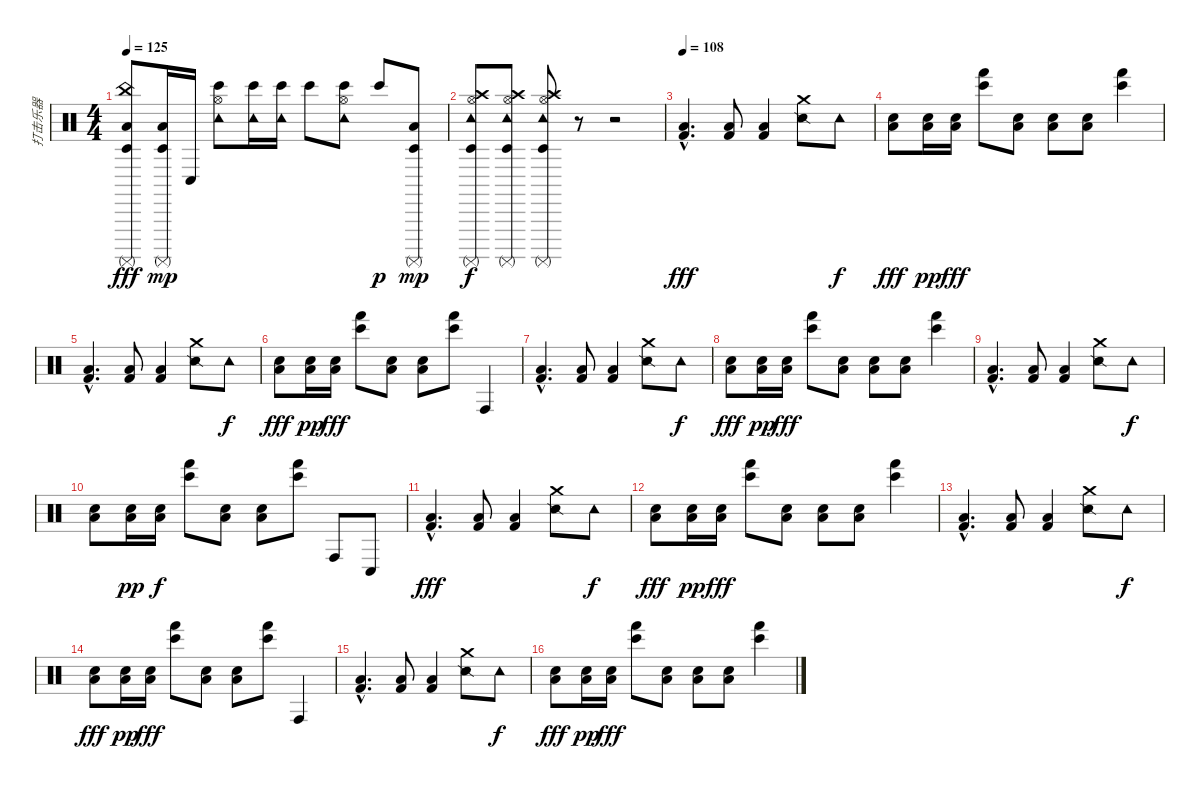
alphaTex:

\track ("打击乐器" "打击乐器") {instrument percussion}
\staff {score}
\articulation defaults
\ts (4 4)
\tempo 125
\clef neutral
\ks c
("Surdo (mute)" "Low Floor Tom (hit)" "Timbale low (hit)" "China (hit)").8{dy fff} ("Surdo (mute)" "Low Floor Tom (hit)" "Timbale low (hit)").16{dy mp} "Conga low (hit)".16 ("Tambourine (hit)" "Hi-Hat (open)" "Bongo High (hit)").8 ("Tambourine (hit)" "Bongo High (hit)").16 ("Tambourine (hit)" "Bongo High (hit)").16 "Bongo High (hit)".8 ("Tambourine (hit)" "Hi-Hat (open)" "Bongo High (hit)").8 "Bongo High (hit)".8{dy p} ("Surdo (mute)" "Low Floor Tom (hit)" "Timbale low (hit)").8{dy mp} |
("Surdo (mute)" "Crash high (hit)" "Timbale low (hit)" "Hi-Hat (open)" "Tambourine (hit)").8{dy f} ("Surdo (mute)" "Crash high (hit)" "Timbale low (hit)" "Hi-Hat (open)" "Tambourine (hit)").8 ("Surdo (mute)" "Crash high (hit)" "Timbale low (hit)" "Hi-Hat (open)" "Tambourine (hit)").8 r.8 r.2 |
\tempo 108
("Low Tom (hit)"{hac} "Kick (hit) 2"{hac}).4{d dy fff} ("Low Tom (hit)" "Kick (hit) 2").8 ("Low Tom (hit)" "Kick (hit) 2").4 ("Crash medium (hit)" "Snare (side stick) 2").8 "Tambourine (hit)".8{dy f} |
("Snare (hit) 2" "Low Tom (hit)").8{dy fff} ("Snare (hit) 2" "Low Tom (hit)").16{dy pp} ("Snare (hit) 2" "Low Tom (hit)").16{dy fff} ("Hand (hit)" "Bongo High (hit)").8 ("Snare (hit) 2" "Low Tom (hit)").8 ("Snare (hit) 2" "Low Tom (hit)").8 ("Snare (hit) 2" "Low Tom (hit)").8 ("Hand (hit)" "Bongo High (hit)").4 |
("Low Tom (hit)"{hac} "Kick (hit) 2"{hac}).4{d} ("Low Tom (hit)" "Kick (hit) 2").8 ("Low Tom (hit)" "Kick (hit) 2").4 ("Crash medium (hit)" "Snare (side stick) 2").8 "Tambourine (hit)".8{dy f} |
("Snare (hit) 2" "Low Tom (hit)").8{dy fff} ("Snare (hit) 2" "Low Tom (hit)").16{dy pp} ("Snare (hit) 2" "Low Tom (hit)").16{dy fff} ("Hand (hit)" "Bongo High (hit)").8 ("Snare (hit) 2" "Low Tom (hit)").8 ("Snare (hit) 2" "Low Tom (hit)").8 ("Hand (hit)" "Bongo High (hit)").8 "Conga high (hit)".4 |
("Low Tom (hit)"{hac} "Kick (hit) 2"{hac}).4{d} ("Low Tom (hit)" "Kick (hit) 2").8 ("Low Tom (hit)" "Kick (hit) 2").4 ("Crash medium (hit)" "Snare (side stick) 2").8 "Tambourine (hit)".8{dy f} |
("Snare (hit) 2" "Low Tom (hit)").8{dy fff} ("Snare (hit) 2" "Low Tom (hit)").16{dy pp} ("Snare (hit) 2" "Low Tom (hit)").16{dy fff} ("Hand (hit)" "Bongo High (hit)").8 ("Snare (hit) 2" "Low Tom (hit)").8 ("Snare (hit) 2" "Low Tom (hit)").8 ("Snare (hit) 2" "Low Tom (hit)").8 ("Hand (hit)" "Bongo High (hit)").4 |
("Low Tom (hit)"{hac} "Kick (hit) 2"{hac}).4{d} ("Low Tom (hit)" "Kick (hit) 2").8 ("Low Tom (hit)" "Kick (hit) 2").4 ("Crash medium (hit)" "Snare (side stick) 2").8 "Tambourine (hit)".8{dy f} |
("Snare (hit) 2" "Low Tom (hit)").8 ("Snare (hit) 2" "Low Tom (hit)").16{dy pp} ("Snare (hit) 2" "Low Tom (hit)").16{dy f} ("Hand (hit)" "Bongo High (hit)").8 ("Snare (hit) 2" "Low Tom (hit)").8 ("Snare (hit) 2" "Low Tom (hit)").8 ("Hand (hit)" "Bongo High (hit)").8 "Conga high (hit)".8 "Conga low (hit)".8 |
("Low Tom (hit)"{hac} "Kick (hit) 2"{hac}).4{d dy fff} ("Low Tom (hit)" "Kick (hit) 2").8 ("Low Tom (hit)" "Kick (hit) 2").4 ("Crash medium (hit)" "Snare (side stick) 2").8 "Tambourine (hit)".8{dy f} |
("Snare (hit) 2" "Low Tom (hit)").8{dy fff} ("Snare (hit) 2" "Low Tom (hit)").16{dy pp} ("Snare (hit) 2" "Low Tom (hit)").16{dy fff} ("Hand (hit)" "Bongo High (hit)").8 ("Snare (hit) 2" "Low Tom (hit)").8 ("Snare (hit) 2" "Low Tom (hit)").8 ("Snare (hit) 2" "Low Tom (hit)").8 ("Hand (hit)" "Bongo High (hit)").4 |
("Low Tom (hit)"{hac} "Kick (hit) 2"{hac}).4{d} ("Low Tom (hit)" "Kick (hit) 2").8 ("Low Tom (hit)" "Kick (hit) 2").4 ("Crash medium (hit)" "Snare (side stick) 2").8 "Tambourine (hit)".8{dy f} |
("Snare (hit) 2" "Low Tom (hit)").8{dy fff} ("Snare (hit) 2" "Low Tom (hit)").16{dy pp} ("Snare (hit) 2" "Low Tom (hit)").16{dy fff} ("Hand (hit)" "Bongo High (hit)").8 ("Snare (hit) 2" "Low Tom (hit)").8 ("Snare (hit) 2" "Low Tom (hit)").8 ("Hand (hit)" "Bongo High (hit)").8 "Conga high (hit)".4 |
("Low Tom (hit)"{hac} "Kick (hit) 2"{hac}).4{d} ("Low Tom (hit)" "Kick (hit) 2").8 ("Low Tom (hit)" "Kick (hit) 2").4 ("Crash medium (hit)" "Snare (side stick) 2").8 "Tambourine (hit)".8{dy f} |
("Snare (hit) 2" "Low Tom (hit)").8{dy fff} ("Snare (hit) 2" "Low Tom (hit)").16{dy pp} ("Snare (hit) 2" "Low Tom (hit)").16{dy fff} ("Hand (hit)" "Bongo High (hit)").8 ("Snare (hit) 2" "Low Tom (hit)").8 ("Snare (hit) 2" "Low Tom (hit)").8 ("Snare (hit) 2" "Low Tom (hit)").8 ("Hand (hit)" "Bongo High (hit)").4
